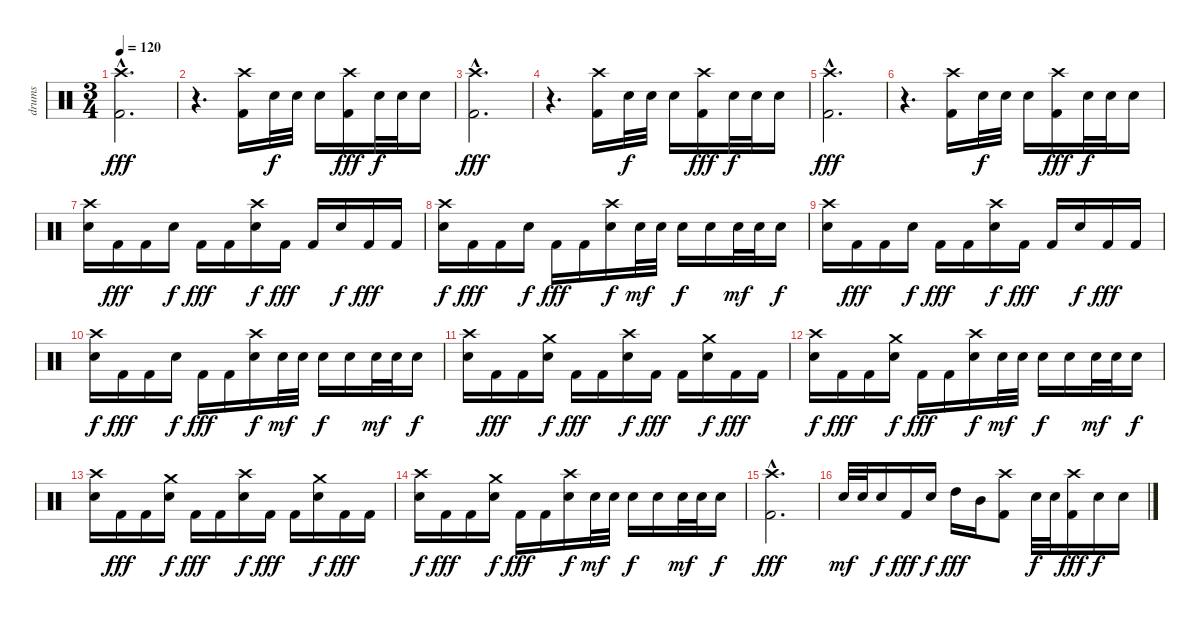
\track ("drums" "drums") {instrument percussion}
\staff {score}
\articulation defaults
\ts (3 4)
\tempo 120
\clef neutral
\ks c
("Crash high (hit)"{hac} "Kick (hit) 2"{hac}).2{d dy fff} |
r.4{d} ("Crash high (hit)" "Kick (hit) 2").16 "Snare (hit) 2".32{dy f} "Snare (hit) 2".32 "Snare (hit) 2".16 ("Crash high (hit)" "Kick (hit) 2").16{dy fff} "Snare (hit) 2".32{dy f} "Snare (hit) 2".32 "Snare (hit) 2".16 |
("Crash high (hit)"{hac} "Kick (hit) 2"{hac}).2{d dy fff} |
r.4{d} ("Crash high (hit)" "Kick (hit) 2").16 "Snare (hit) 2".32{dy f} "Snare (hit) 2".32 "Snare (hit) 2".16 ("Crash high (hit)" "Kick (hit) 2").16{dy fff} "Snare (hit) 2".32{dy f} "Snare (hit) 2".32 "Snare (hit) 2".16 |
("Crash high (hit)"{hac} "Kick (hit) 2"{hac}).2{d dy fff} |
r.4{d} ("Crash high (hit)" "Kick (hit) 2").16 "Snare (hit) 2".32{dy f} "Snare (hit) 2".32 "Snare (hit) 2".16 ("Crash high (hit)" "Kick (hit) 2").16{dy fff} "Snare (hit) 2".32{dy f} "Snare (hit) 2".32 "Snare (hit) 2".16 |
("Crash high (hit)" "Snare (hit) 2").16 "Kick (hit) 2".16{dy fff} "Kick (hit) 2".16 "Snare (hit) 2".16{dy f} "Kick (hit) 2".16{dy fff} "Kick (hit) 2".16 ("Crash high (hit)" "Snare (hit) 2").16{dy f} "Kick (hit) 2".16{dy fff} "Kick (hit) 2".16 "Snare (hit) 2".16{dy f} "Kick (hit) 2".16{dy fff} "Kick (hit) 2".16 |
("Crash high (hit)" "Snare (hit) 2").16{dy f} "Kick (hit) 2".16{dy fff} "Kick (hit) 2".16 "Snare (hit) 2".16{dy f} "Kick (hit) 2".16{dy fff} "Kick (hit) 2".16 ("Crash high (hit)" "Snare (hit) 2").16{dy f} "Snare (hit) 2".32{dy mf} "Snare (hit) 2".32 "Snare (hit) 2".16{dy f} "Snare (hit) 2".16 "Snare (hit) 2".32{dy mf} "Snare (hit) 2".32 "Snare (hit) 2".16{dy f} |
("Crash high (hit)" "Snare (hit) 2").16 "Kick (hit) 2".16{dy fff} "Kick (hit) 2".16 "Snare (hit) 2".16{dy f} "Kick (hit) 2".16{dy fff} "Kick (hit) 2".16 ("Crash high (hit)" "Snare (hit) 2").16{dy f} "Kick (hit) 2".16{dy fff} "Kick (hit) 2".16 "Snare (hit) 2".16{dy f} "Kick (hit) 2".16{dy fff} "Kick (hit) 2".16 |
("Crash high (hit)" "Snare (hit) 2").16{dy f} "Kick (hit) 2".16{dy fff} "Kick (hit) 2".16 "Snare (hit) 2".16{dy f} "Kick (hit) 2".16{dy fff} "Kick (hit) 2".16 ("Crash high (hit)" "Snare (hit) 2").16{dy f} "Snare (hit) 2".32{dy mf} "Snare (hit) 2".32 "Snare (hit) 2".16{dy f} "Snare (hit) 2".16 "Snare (hit) 2".32{dy mf} "Snare (hit) 2".32 "Snare (hit) 2".16{dy f} |
("Crash high (hit)" "Snare (hit) 2").16 "Kick (hit) 2".16{dy fff} "Kick (hit) 2".16 ("Crash medium (hit)" "Snare (hit) 2").16{dy f} "Kick (hit) 2".16{dy fff} "Kick (hit) 2".16 ("Crash high (hit)" "Snare (hit) 2").16{dy f} "Kick (hit) 2".16{dy fff} "Kick (hit) 2".16 ("Crash medium (hit)" "Snare (hit) 2").16{dy f} "Kick (hit) 2".16{dy fff} "Kick (hit) 2".16 |
("Crash high (hit)" "Snare (hit) 2").16{dy f} "Kick (hit) 2".16{dy fff} "Kick (hit) 2".16 ("Crash medium (hit)" "Snare (hit) 2").16{dy f} "Kick (hit) 2".16{dy fff} "Kick (hit) 2".16 ("Crash high (hit)" "Snare (hit) 2").16{dy f} "Snare (hit) 2".32{dy mf} "Snare (hit) 2".32 "Snare (hit) 2".16{dy f} "Snare (hit) 2".16 "Snare (hit) 2".32{dy mf} "Snare (hit) 2".32 "Snare (hit) 2".16{dy f} |
("Crash high (hit)" "Snare (hit) 2").16 "Kick (hit) 2".16{dy fff} "Kick (hit) 2".16 ("Crash medium (hit)" "Snare (hit) 2").16{dy f} "Kick (hit) 2".16{dy fff} "Kick (hit) 2".16 ("Crash high (hit)" "Snare (hit) 2").16{dy f} "Kick (hit) 2".16{dy fff} "Kick (hit) 2".16 ("Crash medium (hit)" "Snare (hit) 2").16{dy f} "Kick (hit) 2".16{dy fff} "Kick (hit) 2".16 |
("Crash high (hit)" "Snare (hit) 2").16{dy f} "Kick (hit) 2".16{dy fff} "Kick (hit) 2".16 ("Crash medium (hit)" "Snare (hit) 2").16{dy f} "Kick (hit) 2".16{dy fff} "Kick (hit) 2".16 ("Crash high (hit)" "Snare (hit) 2").16{dy f} "Snare (hit) 2".32{dy mf} "Snare (hit) 2".32 "Snare (hit) 2".16{dy f} "Snare (hit) 2".16 "Snare (hit) 2".32{dy mf} "Snare (hit) 2".32 "Snare (hit) 2".16{dy f} |
("Crash high (hit)"{hac} "Kick (hit) 2"{hac}).2{d dy fff} |
"Snare (hit) 2".32{dy mf} "Snare (hit) 2".32 "Snare (hit) 2".16{dy f} "Kick (hit) 2".16{dy fff} "Snare (hit) 2".16{dy f} "High Tom (hit)".16{dy fff} "Mid Tom (hit)".16 ("Crash high (hit)" "Kick (hit) 2").8 "Snare (hit) 2".32{dy f} "Snare (hit) 2".32 ("Crash high (hit)" "Kick (hit) 2").16{dy fff} "Snare (hit) 2".16{dy f} "Snare (hit) 2".16
